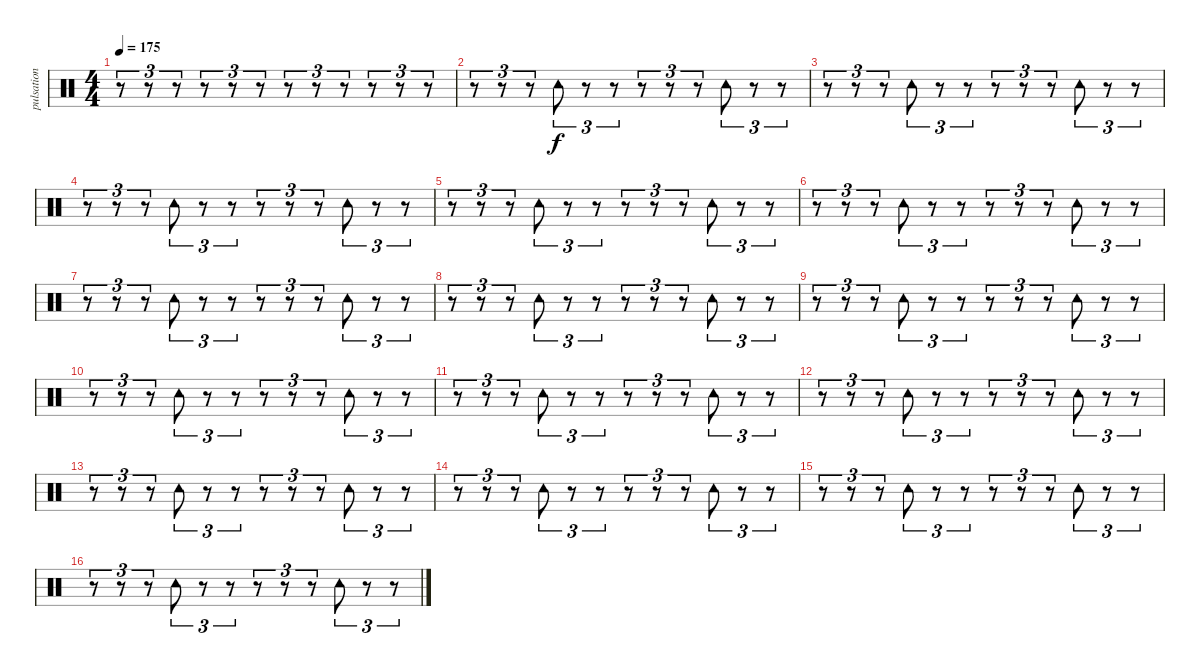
\track ("pulsation" "pulsation") {instrument percussion}
\staff {score}
\articulation defaults
\ts (4 4)
\tempo 175
\clef neutral
\ks c
r.8{tu (3 2) dy f} r.8{tu (3 2)} r.8{tu (3 2)} r.8{tu (3 2)} r.8{tu (3 2)} r.8{tu (3 2)} r.8{tu (3 2)} r.8{tu (3 2)} r.8{tu (3 2)} r.8{tu (3 2)} r.8{tu (3 2)} r.8{tu (3 2)} |
r.8{tu (3 2)} r.8{tu (3 2)} r.8{tu (3 2)} "Tambourine (hit)".8{tu (3 2)} r.8{tu (3 2)} r.8{tu (3 2)} r.8{tu (3 2)} r.8{tu (3 2)} r.8{tu (3 2)} "Tambourine (hit)".8{tu (3 2)} r.8{tu (3 2)} r.8{tu (3 2)} |
r.8{tu (3 2)} r.8{tu (3 2)} r.8{tu (3 2)} "Tambourine (hit)".8{tu (3 2)} r.8{tu (3 2)} r.8{tu (3 2)} r.8{tu (3 2)} r.8{tu (3 2)} r.8{tu (3 2)} "Tambourine (hit)".8{tu (3 2)} r.8{tu (3 2)} r.8{tu (3 2)} |
r.8{tu (3 2)} r.8{tu (3 2)} r.8{tu (3 2)} "Tambourine (hit)".8{tu (3 2)} r.8{tu (3 2)} r.8{tu (3 2)} r.8{tu (3 2)} r.8{tu (3 2)} r.8{tu (3 2)} "Tambourine (hit)".8{tu (3 2)} r.8{tu (3 2)} r.8{tu (3 2)} |
r.8{tu (3 2)} r.8{tu (3 2)} r.8{tu (3 2)} "Tambourine (hit)".8{tu (3 2)} r.8{tu (3 2)} r.8{tu (3 2)} r.8{tu (3 2)} r.8{tu (3 2)} r.8{tu (3 2)} "Tambourine (hit)".8{tu (3 2)} r.8{tu (3 2)} r.8{tu (3 2)} |
r.8{tu (3 2)} r.8{tu (3 2)} r.8{tu (3 2)} "Tambourine (hit)".8{tu (3 2)} r.8{tu (3 2)} r.8{tu (3 2)} r.8{tu (3 2)} r.8{tu (3 2)} r.8{tu (3 2)} "Tambourine (hit)".8{tu (3 2)} r.8{tu (3 2)} r.8{tu (3 2)} |
r.8{tu (3 2)} r.8{tu (3 2)} r.8{tu (3 2)} "Tambourine (hit)".8{tu (3 2)} r.8{tu (3 2)} r.8{tu (3 2)} r.8{tu (3 2)} r.8{tu (3 2)} r.8{tu (3 2)} "Tambourine (hit)".8{tu (3 2)} r.8{tu (3 2)} r.8{tu (3 2)} |
r.8{tu (3 2)} r.8{tu (3 2)} r.8{tu (3 2)} "Tambourine (hit)".8{tu (3 2)} r.8{tu (3 2)} r.8{tu (3 2)} r.8{tu (3 2)} r.8{tu (3 2)} r.8{tu (3 2)} "Tambourine (hit)".8{tu (3 2)} r.8{tu (3 2)} r.8{tu (3 2)} |
r.8{tu (3 2)} r.8{tu (3 2)} r.8{tu (3 2)} "Tambourine (hit)".8{tu (3 2)} r.8{tu (3 2)} r.8{tu (3 2)} r.8{tu (3 2)} r.8{tu (3 2)} r.8{tu (3 2)} "Tambourine (hit)".8{tu (3 2)} r.8{tu (3 2)} r.8{tu (3 2)} |
r.8{tu (3 2)} r.8{tu (3 2)} r.8{tu (3 2)} "Tambourine (hit)".8{tu (3 2)} r.8{tu (3 2)} r.8{tu (3 2)} r.8{tu (3 2)} r.8{tu (3 2)} r.8{tu (3 2)} "Tambourine (hit)".8{tu (3 2)} r.8{tu (3 2)} r.8{tu (3 2)} |
r.8{tu (3 2)} r.8{tu (3 2)} r.8{tu (3 2)} "Tambourine (hit)".8{tu (3 2)} r.8{tu (3 2)} r.8{tu (3 2)} r.8{tu (3 2)} r.8{tu (3 2)} r.8{tu (3 2)} "Tambourine (hit)".8{tu (3 2)} r.8{tu (3 2)} r.8{tu (3 2)} |
r.8{tu (3 2)} r.8{tu (3 2)} r.8{tu (3 2)} "Tambourine (hit)".8{tu (3 2)} r.8{tu (3 2)} r.8{tu (3 2)} r.8{tu (3 2)} r.8{tu (3 2)} r.8{tu (3 2)} "Tambourine (hit)".8{tu (3 2)} r.8{tu (3 2)} r.8{tu (3 2)} |
r.8{tu (3 2)} r.8{tu (3 2)} r.8{tu (3 2)} "Tambourine (hit)".8{tu (3 2)} r.8{tu (3 2)} r.8{tu (3 2)} r.8{tu (3 2)} r.8{tu (3 2)} r.8{tu (3 2)} "Tambourine (hit)".8{tu (3 2)} r.8{tu (3 2)} r.8{tu (3 2)} |
r.8{tu (3 2)} r.8{tu (3 2)} r.8{tu (3 2)} "Tambourine (hit)".8{tu (3 2)} r.8{tu (3 2)} r.8{tu (3 2)} r.8{tu (3 2)} r.8{tu (3 2)} r.8{tu (3 2)} "Tambourine (hit)".8{tu (3 2)} r.8{tu (3 2)} r.8{tu (3 2)} |
r.8{tu (3 2)} r.8{tu (3 2)} r.8{tu (3 2)} "Tambourine (hit)".8{tu (3 2)} r.8{tu (3 2)} r.8{tu (3 2)} r.8{tu (3 2)} r.8{tu (3 2)} r.8{tu (3 2)} "Tambourine (hit)".8{tu (3 2)} r.8{tu (3 2)} r.8{tu (3 2)} |
r.8{tu (3 2)} r.8{tu (3 2)} r.8{tu (3 2)} "Tambourine (hit)".8{tu (3 2)} r.8{tu (3 2)} r.8{tu (3 2)} r.8{tu (3 2)} r.8{tu (3 2)} r.8{tu (3 2)} "Tambourine (hit)".8{tu (3 2)} r.8{tu (3 2)} r.8{tu (3 2)}
